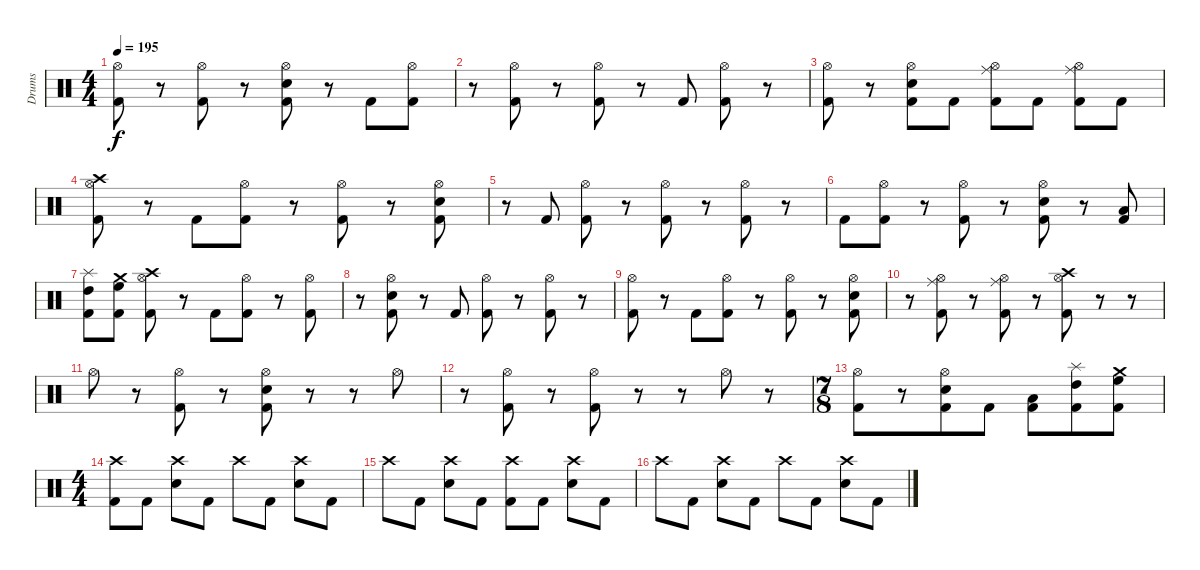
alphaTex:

\track ("Drums" "Drums") {instrument percussion}
\staff {score}
\articulation defaults
\ts (4 4)
\tempo 195
\clef neutral
\ks c
("Hi-Hat (open)" "Kick (hit) 2").8{dy f} r.8 ("Hi-Hat (open)" "Kick (hit) 2").8 r.8 ("Hi-Hat (open)" "Snare (hit) 2" "Kick (hit) 2").8 r.8 "Kick (hit) 2".8 ("Hi-Hat (open)" "Kick (hit) 2").8 |
r.8 ("Hi-Hat (open)" "Kick (hit) 2").8 r.8 ("Hi-Hat (open)" "Kick (hit) 2").8 r.8 "Kick (hit) 2".8 ("Hi-Hat (open)" "Kick (hit) 2").8 r.8 |
("Hi-Hat (open)" "Kick (hit) 2").8 r.8 ("Hi-Hat (open)" "Snare (hit) 2" "Kick (hit) 2").8 "Kick (hit) 2".8 ("Ride (middle)" "Hi-Hat (open)" "Kick (hit) 2").8 "Kick (hit) 2".8 ("Ride (middle)" "Hi-Hat (open)" "Kick (hit) 2").8 "Kick (hit) 2".8 |
("Crash high (hit)" "Hi-Hat (open)" "Kick (hit) 2").8 r.8 "Kick (hit) 2".8 ("Hi-Hat (open)" "Kick (hit) 2").8 r.8 ("Hi-Hat (open)" "Kick (hit) 2").8 r.8 ("Hi-Hat (open)" "Snare (hit) 2" "Kick (hit) 2").8 |
r.8 "Kick (hit) 2".8 ("Hi-Hat (open)" "Kick (hit) 2").8 r.8 ("Hi-Hat (open)" "Kick (hit) 2").8 r.8 ("Hi-Hat (open)" "Kick (hit) 2").8 r.8 |
"Kick (hit) 2".8 ("Hi-Hat (open)" "Kick (hit) 2").8 r.8 ("Hi-Hat (open)" "Kick (hit) 2").8 r.8 ("Hi-Hat (open)" "Snare (hit) 2" "Kick (hit) 2").8 r.8 ("Low Tom (hit)" "Kick (hit) 2").8 |
("Splash (hit)" "High Tom (hit)" "Kick (hit) 2").8 ("Crash medium (hit)" "High Floor Tom (hit)" "Kick (hit) 2").8 ("Crash high (hit)" "Hi-Hat (open)" "Kick (hit) 2").8 r.8 "Kick (hit) 2".8 ("Hi-Hat (open)" "Kick (hit) 2").8 r.8 ("Hi-Hat (open)" "Kick (hit) 2").8 |
r.8 ("Hi-Hat (open)" "Snare (hit) 2" "Kick (hit) 2").8 r.8 "Kick (hit) 2".8 ("Hi-Hat (open)" "Kick (hit) 2").8 r.8 ("Hi-Hat (open)" "Kick (hit) 2").8 r.8 |
("Hi-Hat (open)" "Kick (hit) 2").8 r.8 "Kick (hit) 2".8 ("Hi-Hat (open)" "Kick (hit) 2").8 r.8 ("Hi-Hat (open)" "Kick (hit) 2").8 r.8 ("Hi-Hat (open)" "Snare (hit) 2" "Kick (hit) 2").8 |
r.8 ("Ride (middle)" "Hi-Hat (open)" "Kick (hit) 2").8 r.8 ("Ride (middle)" "Hi-Hat (open)" "Kick (hit) 2").8 r.8 ("Crash high (hit)" "Hi-Hat (open)" "Kick (hit) 2").8 r.8 r.8 |
"Hi-Hat (open)".8 r.8 ("Hi-Hat (open)" "Kick (hit) 2").8 r.8 ("Hi-Hat (open)" "Snare (hit) 2" "Kick (hit) 2").8 r.8 r.8 "Hi-Hat (open)".8 |
r.8 ("Hi-Hat (open)" "Kick (hit) 2").8 r.8 ("Hi-Hat (open)" "Kick (hit) 2").8 r.8 r.8 "Hi-Hat (open)".8 r.8 |
\ts (7 8)
("Hi-Hat (open)" "Kick (hit) 2").8 r.8 ("Hi-Hat (open)" "Snare (hit) 2" "Kick (hit) 2").8 "Kick (hit) 2".8 ("Low Tom (hit)" "Kick (hit) 2").8 ("Splash (hit)" "High Tom (hit)" "Kick (hit) 2").8 ("Crash medium (hit)" "High Floor Tom (hit)" "Kick (hit) 2").8 |
\ts (4 4)
("Crash high (hit)" "Kick (hit) 2").8 "Kick (hit) 2".8 ("Crash high (hit)" "Snare (hit) 2").8 "Kick (hit) 2".8 "Crash high (hit)".8 "Kick (hit) 2".8 ("Crash high (hit)" "Snare (hit) 2").8 "Kick (hit) 2".8 |
"Crash high (hit)".8 "Kick (hit) 2".8 ("Crash high (hit)" "Snare (hit) 2").8 "Kick (hit) 2".8 ("Crash high (hit)" "Kick (hit) 2").8 "Kick (hit) 2".8 ("Crash high (hit)" "Snare (hit) 2").8 "Kick (hit) 2".8 |
"Crash high (hit)".8 "Kick (hit) 2".8 ("Crash high (hit)" "Snare (hit) 2").8 "Kick (hit) 2".8 "Crash high (hit)".8 "Kick (hit) 2".8 ("Crash high (hit)" "Snare (hit) 2").8 "Kick (hit) 2".8
